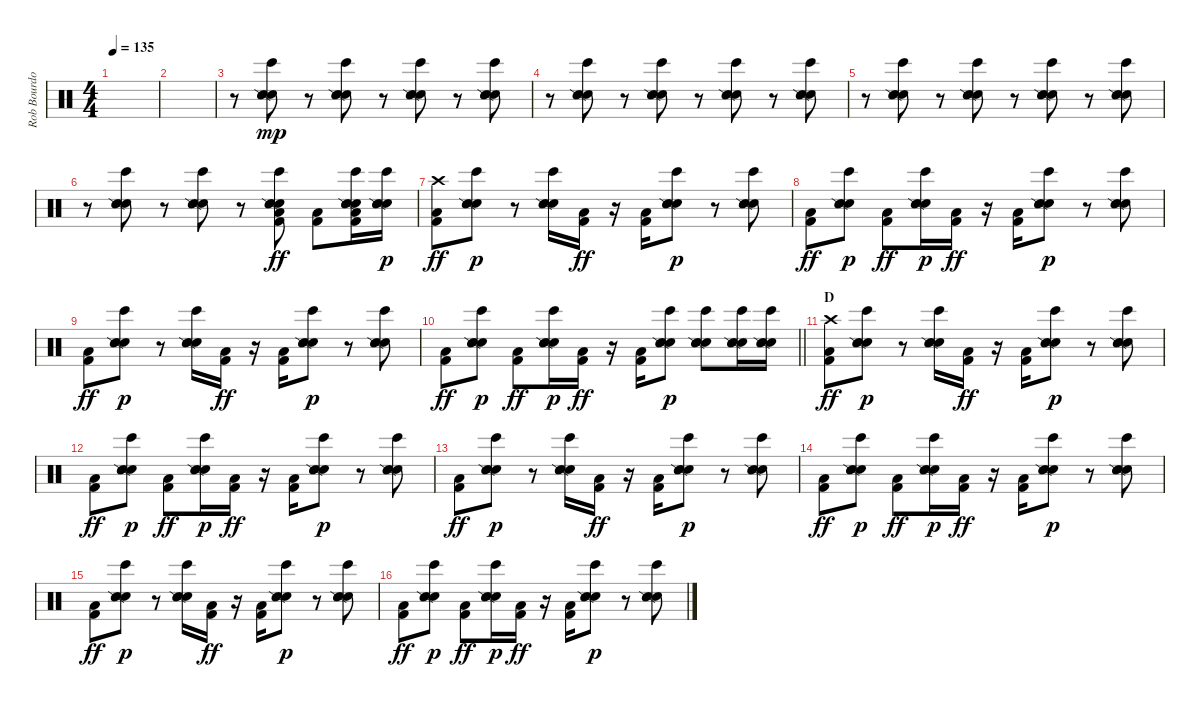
\track ("Rob Bourdon - Beats & Drums" "Rob Bourdo") {instrument percussion}
\staff {score}
\articulation defaults
\ts (4 4)
\tempo 135
\clef neutral
\ks c
|
|
r.8 ("Bongo High (hit)" "Electric Snare (hit)" "Snare (side stick) 2" "Hand Clap (hit)").8{dy mp} r.8 ("Bongo High (hit)" "Electric Snare (hit)" "Snare (side stick) 2" "Hand Clap (hit)").8 r.8 ("Bongo High (hit)" "Electric Snare (hit)" "Snare (side stick) 2" "Hand Clap (hit)").8 r.8 ("Bongo High (hit)" "Electric Snare (hit)" "Snare (side stick) 2" "Hand Clap (hit)").8 |
r.8 ("Bongo High (hit)" "Electric Snare (hit)" "Snare (side stick) 2" "Hand Clap (hit)").8 r.8 ("Bongo High (hit)" "Electric Snare (hit)" "Snare (side stick) 2" "Hand Clap (hit)").8 r.8 ("Bongo High (hit)" "Electric Snare (hit)" "Snare (side stick) 2" "Hand Clap (hit)").8 r.8 ("Bongo High (hit)" "Electric Snare (hit)" "Snare (side stick) 2" "Hand Clap (hit)").8 |
r.8 ("Bongo High (hit)" "Electric Snare (hit)" "Snare (side stick) 2" "Hand Clap (hit)").8 r.8 ("Bongo High (hit)" "Electric Snare (hit)" "Snare (side stick) 2" "Hand Clap (hit)").8 r.8 ("Bongo High (hit)" "Electric Snare (hit)" "Snare (side stick) 2" "Hand Clap (hit)").8 r.8 ("Bongo High (hit)" "Electric Snare (hit)" "Snare (side stick) 2" "Hand Clap (hit)").8 |
r.8 ("Bongo High (hit)" "Electric Snare (hit)" "Snare (side stick) 2" "Hand Clap (hit)").8 r.8 ("Bongo High (hit)" "Electric Snare (hit)" "Snare (side stick) 2" "Hand Clap (hit)").8 r.8 ("Low Floor Tom (hit)" "Bongo High (hit)" "Electric Snare (hit)" "Snare (side stick) 2" "Hand Clap (hit)" "Kick (hit) 2").8{dy ff} ("Low Floor Tom (hit)" "Kick (hit) 2").8 ("Low Floor Tom (hit)" "Bongo High (hit)" "Electric Snare (hit)" "Snare (side stick) 2" "Hand Clap (hit)" "Kick (hit) 2").16 ("Bongo High (hit)" "Electric Snare (hit)" "Snare (side stick) 2" "Hand Clap (hit)").16{dy p} |
("Low Floor Tom (hit)" "Crash high (hit)" "Kick (hit) 2").8{dy ff} ("Bongo High (hit)" "Electric Snare (hit)" "Snare (side stick) 2" "Hand Clap (hit)").8{dy p} r.8 ("Bongo High (hit)" "Electric Snare (hit)" "Snare (side stick) 2" "Hand Clap (hit)").16 ("Low Floor Tom (hit)" "Kick (hit) 2").16{dy ff} r.16 ("Low Floor Tom (hit)" "Kick (hit) 2").16 ("Bongo High (hit)" "Electric Snare (hit)" "Snare (side stick) 2" "Hand Clap (hit)").8{dy p} r.8 ("Bongo High (hit)" "Electric Snare (hit)" "Snare (side stick) 2" "Hand Clap (hit)").8 |
("Low Floor Tom (hit)" "Kick (hit) 2").8{dy ff} ("Bongo High (hit)" "Electric Snare (hit)" "Snare (side stick) 2" "Hand Clap (hit)").8{dy p} ("Low Floor Tom (hit)" "Kick (hit) 2").8{dy ff} ("Bongo High (hit)" "Electric Snare (hit)" "Snare (side stick) 2" "Hand Clap (hit)").16{dy p} ("Low Floor Tom (hit)" "Kick (hit) 2").16{dy ff} r.16 ("Low Floor Tom (hit)" "Kick (hit) 2").16 ("Bongo High (hit)" "Electric Snare (hit)" "Snare (side stick) 2" "Hand Clap (hit)").8{dy p} r.8 ("Bongo High (hit)" "Electric Snare (hit)" "Snare (side stick) 2" "Hand Clap (hit)").8 |
("Low Floor Tom (hit)" "Kick (hit) 2").8{dy ff} ("Bongo High (hit)" "Electric Snare (hit)" "Snare (side stick) 2" "Hand Clap (hit)").8{dy p} r.8 ("Bongo High (hit)" "Electric Snare (hit)" "Snare (side stick) 2" "Hand Clap (hit)").16 ("Low Floor Tom (hit)" "Kick (hit) 2").16{dy ff} r.16 ("Low Floor Tom (hit)" "Kick (hit) 2").16 ("Bongo High (hit)" "Electric Snare (hit)" "Snare (side stick) 2" "Hand Clap (hit)").8{dy p} r.8 ("Bongo High (hit)" "Electric Snare (hit)" "Snare (side stick) 2" "Hand Clap (hit)").8 |
\barLineRight lightlight
("Low Floor Tom (hit)" "Kick (hit) 2").8{dy ff} ("Bongo High (hit)" "Electric Snare (hit)" "Snare (side stick) 2" "Hand Clap (hit)").8{dy p} ("Low Floor Tom (hit)" "Kick (hit) 2").8{dy ff} ("Bongo High (hit)" "Electric Snare (hit)" "Snare (side stick) 2" "Hand Clap (hit)").16{dy p} ("Low Floor Tom (hit)" "Kick (hit) 2").16{dy ff} r.16 ("Low Floor Tom (hit)" "Kick (hit) 2").16 ("Bongo High (hit)" "Electric Snare (hit)" "Snare (side stick) 2" "Hand Clap (hit)").8{dy p} ("Bongo High (hit)" "Electric Snare (hit)" "Snare (side stick) 2" "Hand Clap (hit)").8 ("Bongo High (hit)" "Electric Snare (hit)" "Snare (side stick) 2" "Hand Clap (hit)").16 ("Bongo High (hit)" "Electric Snare (hit)" "Snare (side stick) 2" "Hand Clap (hit)").16 |
\section ("" "D")
("Low Floor Tom (hit)" "Crash high (hit)" "Kick (hit) 2").8{dy ff} ("Bongo High (hit)" "Electric Snare (hit)" "Snare (side stick) 2" "Hand Clap (hit)").8{dy p} r.8 ("Bongo High (hit)" "Electric Snare (hit)" "Snare (side stick) 2" "Hand Clap (hit)").16 ("Low Floor Tom (hit)" "Kick (hit) 2").16{dy ff} r.16 ("Low Floor Tom (hit)" "Kick (hit) 2").16 ("Bongo High (hit)" "Electric Snare (hit)" "Snare (side stick) 2" "Hand Clap (hit)").8{dy p} r.8 ("Bongo High (hit)" "Electric Snare (hit)" "Snare (side stick) 2" "Hand Clap (hit)").8 |
("Low Floor Tom (hit)" "Kick (hit) 2").8{dy ff} ("Bongo High (hit)" "Electric Snare (hit)" "Snare (side stick) 2" "Hand Clap (hit)").8{dy p} ("Low Floor Tom (hit)" "Kick (hit) 2").8{dy ff} ("Bongo High (hit)" "Electric Snare (hit)" "Snare (side stick) 2" "Hand Clap (hit)").16{dy p} ("Low Floor Tom (hit)" "Kick (hit) 2").16{dy ff} r.16 ("Low Floor Tom (hit)" "Kick (hit) 2").16 ("Bongo High (hit)" "Electric Snare (hit)" "Snare (side stick) 2" "Hand Clap (hit)").8{dy p} r.8 ("Bongo High (hit)" "Electric Snare (hit)" "Snare (side stick) 2" "Hand Clap (hit)").8 |
("Low Floor Tom (hit)" "Kick (hit) 2").8{dy ff} ("Bongo High (hit)" "Electric Snare (hit)" "Snare (side stick) 2" "Hand Clap (hit)").8{dy p} r.8 ("Bongo High (hit)" "Electric Snare (hit)" "Snare (side stick) 2" "Hand Clap (hit)").16 ("Low Floor Tom (hit)" "Kick (hit) 2").16{dy ff} r.16 ("Low Floor Tom (hit)" "Kick (hit) 2").16 ("Bongo High (hit)" "Electric Snare (hit)" "Snare (side stick) 2" "Hand Clap (hit)").8{dy p} r.8 ("Bongo High (hit)" "Electric Snare (hit)" "Snare (side stick) 2" "Hand Clap (hit)").8 |
("Low Floor Tom (hit)" "Kick (hit) 2").8{dy ff} ("Bongo High (hit)" "Electric Snare (hit)" "Snare (side stick) 2" "Hand Clap (hit)").8{dy p} ("Low Floor Tom (hit)" "Kick (hit) 2").8{dy ff} ("Bongo High (hit)" "Electric Snare (hit)" "Snare (side stick) 2" "Hand Clap (hit)").16{dy p} ("Low Floor Tom (hit)" "Kick (hit) 2").16{dy ff} r.16 ("Low Floor Tom (hit)" "Kick (hit) 2").16 ("Bongo High (hit)" "Electric Snare (hit)" "Snare (side stick) 2" "Hand Clap (hit)").8{dy p} r.8 ("Bongo High (hit)" "Electric Snare (hit)" "Snare (side stick) 2" "Hand Clap (hit)").8 |
("Low Floor Tom (hit)" "Kick (hit) 2").8{dy ff} ("Bongo High (hit)" "Electric Snare (hit)" "Snare (side stick) 2" "Hand Clap (hit)").8{dy p} r.8 ("Bongo High (hit)" "Electric Snare (hit)" "Snare (side stick) 2" "Hand Clap (hit)").16 ("Low Floor Tom (hit)" "Kick (hit) 2").16{dy ff} r.16 ("Low Floor Tom (hit)" "Kick (hit) 2").16 ("Bongo High (hit)" "Electric Snare (hit)" "Snare (side stick) 2" "Hand Clap (hit)").8{dy p} r.8 ("Bongo High (hit)" "Electric Snare (hit)" "Snare (side stick) 2" "Hand Clap (hit)").8 |
("Low Floor Tom (hit)" "Kick (hit) 2").8{dy ff} ("Bongo High (hit)" "Electric Snare (hit)" "Snare (side stick) 2" "Hand Clap (hit)").8{dy p} ("Low Floor Tom (hit)" "Kick (hit) 2").8{dy ff} ("Bongo High (hit)" "Electric Snare (hit)" "Snare (side stick) 2" "Hand Clap (hit)").16{dy p} ("Low Floor Tom (hit)" "Kick (hit) 2").16{dy ff} r.16 ("Low Floor Tom (hit)" "Kick (hit) 2").16 ("Bongo High (hit)" "Electric Snare (hit)" "Snare (side stick) 2" "Hand Clap (hit)").8{dy p} r.8 ("Bongo High (hit)" "Electric Snare (hit)" "Snare (side stick) 2" "Hand Clap (hit)").8
